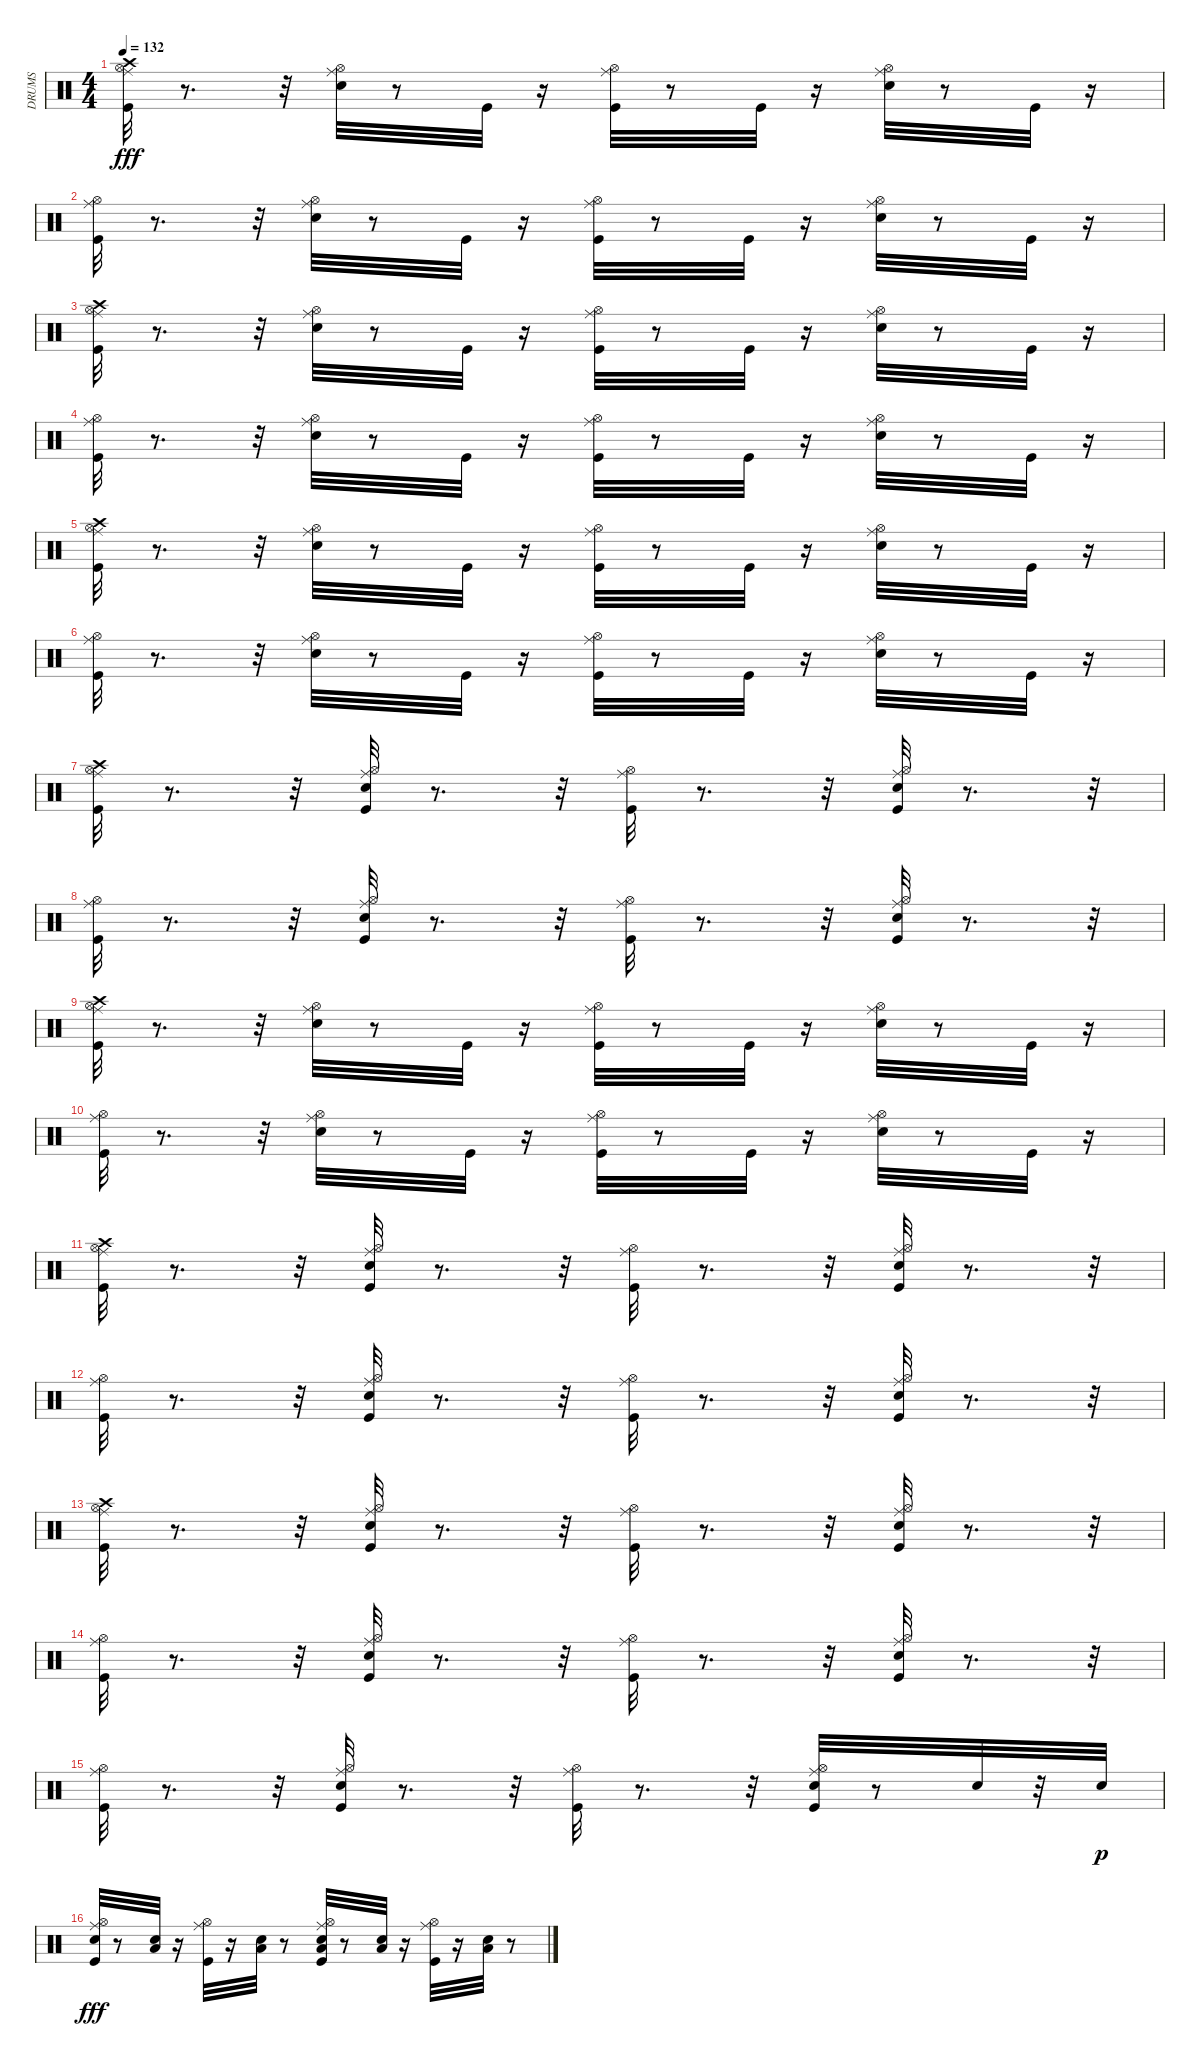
\track ("DRUMS" "DRUMS") {instrument percussion}
\staff {score}
\articulation defaults
\ts (4 4)
\tempo 132
\clef neutral
\ks c
("Kick (hit)" "Crash high (hit)" "Ride (middle)" "Hi-Hat (open)").32{dy fff} r.8{d} r.32 ("Snare (hit) 2" "Ride (middle)" "Hi-Hat (open)").32 r.8 "Kick (hit)".32 r.16 ("Kick (hit)" "Ride (middle)" "Hi-Hat (open)").32 r.8 "Kick (hit)".32 r.16 ("Snare (hit) 2" "Ride (middle)" "Hi-Hat (open)").32 r.8 "Kick (hit)".32 r.16 |
("Kick (hit)" "Ride (middle)" "Hi-Hat (open)").32 r.8{d} r.32 ("Snare (hit) 2" "Ride (middle)" "Hi-Hat (open)").32 r.8 "Kick (hit)".32 r.16 ("Kick (hit)" "Ride (middle)" "Hi-Hat (open)").32 r.8 "Kick (hit)".32 r.16 ("Snare (hit) 2" "Ride (middle)" "Hi-Hat (open)").32 r.8 "Kick (hit)".32 r.16 |
("Kick (hit)" "Crash high (hit)" "Ride (middle)" "Hi-Hat (open)").32 r.8{d} r.32 ("Snare (hit) 2" "Ride (middle)" "Hi-Hat (open)").32 r.8 "Kick (hit)".32 r.16 ("Kick (hit)" "Ride (middle)" "Hi-Hat (open)").32 r.8 "Kick (hit)".32 r.16 ("Snare (hit) 2" "Ride (middle)" "Hi-Hat (open)").32 r.8 "Kick (hit)".32 r.16 |
("Kick (hit)" "Ride (middle)" "Hi-Hat (open)").32 r.8{d} r.32 ("Snare (hit) 2" "Ride (middle)" "Hi-Hat (open)").32 r.8 "Kick (hit)".32 r.16 ("Kick (hit)" "Ride (middle)" "Hi-Hat (open)").32 r.8 "Kick (hit)".32 r.16 ("Snare (hit) 2" "Ride (middle)" "Hi-Hat (open)").32 r.8 "Kick (hit)".32 r.16 |
("Kick (hit)" "Crash high (hit)" "Ride (middle)" "Hi-Hat (open)").32 r.8{d} r.32 ("Snare (hit) 2" "Ride (middle)" "Hi-Hat (open)").32 r.8 "Kick (hit)".32 r.16 ("Kick (hit)" "Ride (middle)" "Hi-Hat (open)").32 r.8 "Kick (hit)".32 r.16 ("Snare (hit) 2" "Ride (middle)" "Hi-Hat (open)").32 r.8 "Kick (hit)".32 r.16 |
("Kick (hit)" "Ride (middle)" "Hi-Hat (open)").32 r.8{d} r.32 ("Snare (hit) 2" "Ride (middle)" "Hi-Hat (open)").32 r.8 "Kick (hit)".32 r.16 ("Kick (hit)" "Ride (middle)" "Hi-Hat (open)").32 r.8 "Kick (hit)".32 r.16 ("Snare (hit) 2" "Ride (middle)" "Hi-Hat (open)").32 r.8 "Kick (hit)".32 r.16 |
("Kick (hit)" "Crash high (hit)" "Ride (middle)" "Hi-Hat (open)").32 r.8{d} r.32 ("Snare (hit) 2" "Kick (hit)" "Ride (middle)" "Hi-Hat (open)").32 r.8{d} r.32 ("Kick (hit)" "Ride (middle)" "Hi-Hat (open)").32 r.8{d} r.32 ("Snare (hit) 2" "Kick (hit)" "Ride (middle)" "Hi-Hat (open)").32 r.8{d} r.32 |
("Kick (hit)" "Ride (middle)" "Hi-Hat (open)").32 r.8{d} r.32 ("Snare (hit) 2" "Kick (hit)" "Ride (middle)" "Hi-Hat (open)").32 r.8{d} r.32 ("Kick (hit)" "Ride (middle)" "Hi-Hat (open)").32 r.8{d} r.32 ("Snare (hit) 2" "Kick (hit)" "Ride (middle)" "Hi-Hat (open)").32 r.8{d} r.32 |
("Kick (hit)" "Crash high (hit)" "Ride (middle)" "Hi-Hat (open)").32 r.8{d} r.32 ("Snare (hit) 2" "Ride (middle)" "Hi-Hat (open)").32 r.8 "Kick (hit)".32 r.16 ("Kick (hit)" "Ride (middle)" "Hi-Hat (open)").32 r.8 "Kick (hit)".32 r.16 ("Snare (hit) 2" "Ride (middle)" "Hi-Hat (open)").32 r.8 "Kick (hit)".32 r.16 |
("Kick (hit)" "Ride (middle)" "Hi-Hat (open)").32 r.8{d} r.32 ("Snare (hit) 2" "Ride (middle)" "Hi-Hat (open)").32 r.8 "Kick (hit)".32 r.16 ("Kick (hit)" "Ride (middle)" "Hi-Hat (open)").32 r.8 "Kick (hit)".32 r.16 ("Snare (hit) 2" "Ride (middle)" "Hi-Hat (open)").32 r.8 "Kick (hit)".32 r.16 |
("Kick (hit)" "Crash high (hit)" "Ride (middle)" "Hi-Hat (open)").32 r.8{d} r.32 ("Snare (hit) 2" "Kick (hit)" "Ride (middle)" "Hi-Hat (open)").32 r.8{d} r.32 ("Kick (hit)" "Ride (middle)" "Hi-Hat (open)").32 r.8{d} r.32 ("Snare (hit) 2" "Kick (hit)" "Ride (middle)" "Hi-Hat (open)").32 r.8{d} r.32 |
("Kick (hit)" "Ride (middle)" "Hi-Hat (open)").32 r.8{d} r.32 ("Snare (hit) 2" "Kick (hit)" "Ride (middle)" "Hi-Hat (open)").32 r.8{d} r.32 ("Kick (hit)" "Ride (middle)" "Hi-Hat (open)").32 r.8{d} r.32 ("Snare (hit) 2" "Kick (hit)" "Ride (middle)" "Hi-Hat (open)").32 r.8{d} r.32 |
("Kick (hit)" "Crash high (hit)" "Ride (middle)" "Hi-Hat (open)").32 r.8{d} r.32 ("Snare (hit) 2" "Kick (hit)" "Ride (middle)" "Hi-Hat (open)").32 r.8{d} r.32 ("Kick (hit)" "Ride (middle)" "Hi-Hat (open)").32 r.8{d} r.32 ("Snare (hit) 2" "Kick (hit)" "Ride (middle)" "Hi-Hat (open)").32 r.8{d} r.32 |
("Kick (hit)" "Ride (middle)" "Hi-Hat (open)").32 r.8{d} r.32 ("Snare (hit) 2" "Kick (hit)" "Ride (middle)" "Hi-Hat (open)").32 r.8{d} r.32 ("Kick (hit)" "Ride (middle)" "Hi-Hat (open)").32 r.8{d} r.32 ("Snare (hit) 2" "Kick (hit)" "Ride (middle)" "Hi-Hat (open)").32 r.8{d} r.32 |
("Kick (hit)" "Ride (middle)" "Hi-Hat (open)").32 r.8{d} r.32 ("Snare (hit) 2" "Kick (hit)" "Ride (middle)" "Hi-Hat (open)").32 r.8{d} r.32 ("Kick (hit)" "Ride (middle)" "Hi-Hat (open)").32 r.8{d} r.32 ("Snare (hit) 2" "Kick (hit)" "Ride (middle)" "Hi-Hat (open)").32 r.8 "Snare (hit) 2".32 r.32 "Snare (hit) 2".32{dy p} |
("Snare (hit) 2" "Kick (hit)" "Ride (middle)" "Hi-Hat (open)").32{dy fff} r.8 ("Snare (hit) 2" "Low Tom (hit)").32 r.16 ("Kick (hit)" "Ride (middle)" "Hi-Hat (open)").32 r.16 ("Snare (hit) 2" "Low Tom (hit)").32 r.8 ("Snare (hit) 2" "Low Tom (hit)" "Kick (hit)" "Ride (middle)" "Hi-Hat (open)").32 r.8 ("Snare (hit) 2" "Low Tom (hit)").32 r.16 ("Kick (hit)" "Ride (middle)" "Hi-Hat (open)").32 r.16 ("Snare (hit) 2" "Low Tom (hit)").32 r.8
